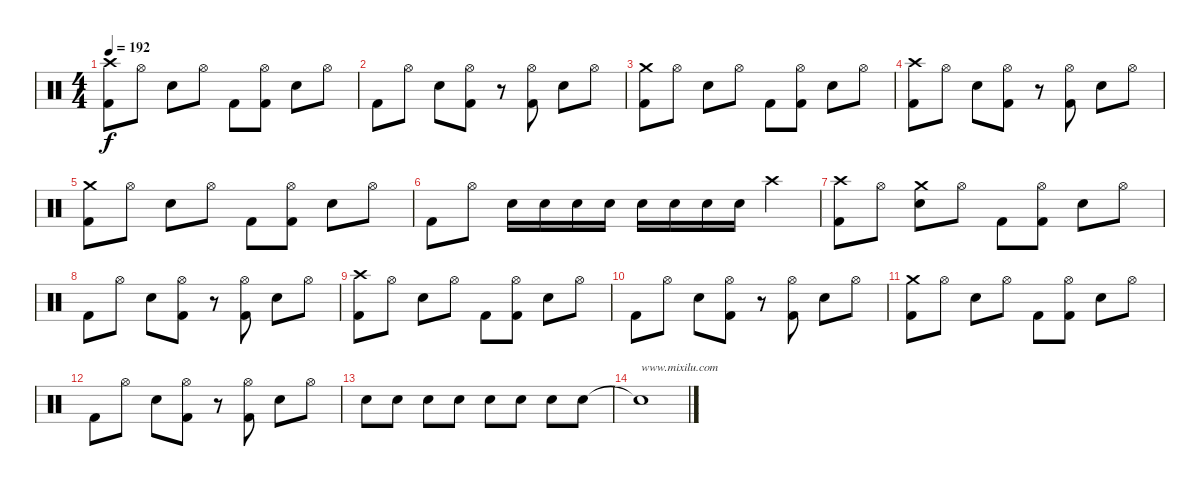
\track "" {instrument percussion}
\staff {score}
\articulation defaults
\ts (4 4)
\tempo 192
\clef neutral
\ks c
("Crash high (hit)" "Kick (hit) 2").8{dy f} "Hi-Hat (open)".8 "Snare (hit) 2".8 "Hi-Hat (open)".8 "Kick (hit) 2".8 ("Hi-Hat (open)" "Kick (hit) 2").8 "Snare (hit) 2".8 "Hi-Hat (open)".8 |
"Kick (hit) 2".8 "Hi-Hat (open)".8 "Snare (hit) 2".8 ("Hi-Hat (open)" "Kick (hit) 2").8 r.8 ("Hi-Hat (open)" "Kick (hit) 2").8 "Snare (hit) 2".8 "Hi-Hat (open)".8 |
("Crash medium (hit)" "Kick (hit) 2").8 "Hi-Hat (open)".8 "Snare (hit) 2".8 "Hi-Hat (open)".8 "Kick (hit) 2".8 ("Hi-Hat (open)" "Kick (hit) 2").8 "Snare (hit) 2".8 "Hi-Hat (open)".8 |
("Crash high (hit)" "Kick (hit) 2").8 "Hi-Hat (open)".8 "Snare (hit) 2".8 ("Hi-Hat (open)" "Kick (hit) 2").8 r.8 ("Hi-Hat (open)" "Kick (hit) 2").8 "Snare (hit) 2".8 "Hi-Hat (open)".8 |
("Crash medium (hit)" "Kick (hit) 2").8 "Hi-Hat (open)".8 "Snare (hit) 2".8 "Hi-Hat (open)".8 "Kick (hit) 2".8 ("Hi-Hat (open)" "Kick (hit) 2").8 "Snare (hit) 2".8 "Hi-Hat (open)".8 |
"Kick (hit) 2".8 "Hi-Hat (open)".8 "Snare (hit) 2".16 "Snare (hit) 2".16 "Snare (hit) 2".16 "Snare (hit) 2".16 "Snare (hit) 2".16 "Snare (hit) 2".16 "Snare (hit) 2".16 "Snare (hit) 2".16 "Crash high (hit)".4 |
("Crash high (hit)" "Kick (hit) 2").8 "Hi-Hat (open)".8 ("Crash medium (hit)" "Snare (hit) 2").8 "Hi-Hat (open)".8 "Kick (hit) 2".8 ("Hi-Hat (open)" "Kick (hit) 2").8 "Snare (hit) 2".8 "Hi-Hat (open)".8 |
"Kick (hit) 2".8 "Hi-Hat (open)".8 "Snare (hit) 2".8 ("Hi-Hat (open)" "Kick (hit) 2").8 r.8 ("Hi-Hat (open)" "Kick (hit) 2").8 "Snare (hit) 2".8 "Hi-Hat (open)".8 |
("Crash high (hit)" "Kick (hit) 2").8 "Hi-Hat (open)".8 "Snare (hit) 2".8 "Hi-Hat (open)".8 "Kick (hit) 2".8 ("Hi-Hat (open)" "Kick (hit) 2").8 "Snare (hit) 2".8 "Hi-Hat (open)".8 |
"Kick (hit) 2".8 "Hi-Hat (open)".8 "Snare (hit) 2".8 ("Hi-Hat (open)" "Kick (hit) 2").8 r.8 ("Hi-Hat (open)" "Kick (hit) 2").8 "Snare (hit) 2".8 "Hi-Hat (open)".8 |
("Crash medium (hit)" "Kick (hit) 2").8 "Hi-Hat (open)".8 "Snare (hit) 2".8 "Hi-Hat (open)".8 "Kick (hit) 2".8 ("Hi-Hat (open)" "Kick (hit) 2").8 "Snare (hit) 2".8 "Hi-Hat (open)".8 |
"Kick (hit) 2".8 "Hi-Hat (open)".8 "Snare (hit) 2".8 ("Hi-Hat (open)" "Kick (hit) 2").8 r.8 ("Hi-Hat (open)" "Kick (hit) 2").8 "Snare (hit) 2".8 "Hi-Hat (open)".8 |
"Snare (hit) 2".8 "Snare (hit) 2".8 "Snare (hit) 2".8 "Snare (hit) 2".8 "Snare (hit) 2".8 "Snare (hit) 2".8 "Snare (hit) 2".8 "Snare (hit) 2".8 |
"Snare (hit)"{t}.1{txt "www.mixilu.com"}
